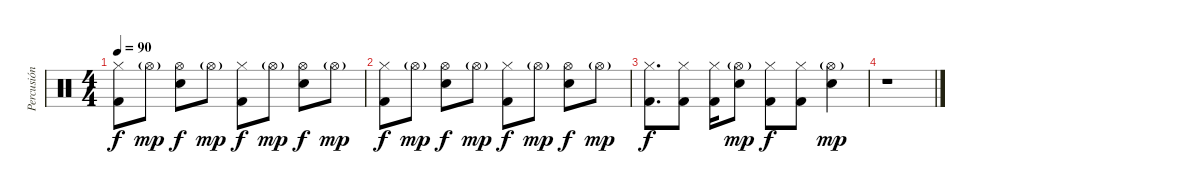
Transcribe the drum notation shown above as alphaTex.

\track ("Percusión" "Percusión") {instrument percussion}
\staff {score}
\articulation defaults
\ts (4 4)
\tempo 90
\clef neutral
\ks c
("Hi-Hat (closed)" "Kick (hit) 2").8{dy f} "Hi-Hat (open)"{g}.8{dy mp} ("Hi-Hat (open)" "Snare (hit) 2").8{dy f} "Hi-Hat (open)"{g}.8{dy mp} ("Hi-Hat (closed)" "Kick (hit) 2").8{dy f} "Hi-Hat (open)"{g}.8{dy mp} ("Hi-Hat (open)" "Snare (hit) 2").8{dy f} "Hi-Hat (open)"{g}.8{dy mp} |
("Hi-Hat (closed)" "Kick (hit) 2").8{dy f} "Hi-Hat (open)"{g}.8{dy mp} ("Hi-Hat (open)" "Snare (hit) 2").8{dy f} "Hi-Hat (open)"{g}.8{dy mp} ("Hi-Hat (closed)" "Kick (hit) 2").8{dy f} "Hi-Hat (open)"{g}.8{dy mp} ("Hi-Hat (open)" "Snare (hit) 2").8{dy f} "Hi-Hat (open)"{g}.8{dy mp} |
("Hi-Hat (closed)" "Kick (hit) 2").8{d dy f} ("Hi-Hat (closed)" "Kick (hit) 2").8 ("Hi-Hat (closed)" "Kick (hit) 2").16 ("Hi-Hat (open)"{g} "Snare (hit) 2").8{dy mp} ("Hi-Hat (closed)" "Kick (hit) 2").8{dy f} ("Hi-Hat (closed)" "Kick (hit) 2").8 ("Hi-Hat (open)"{g} "Snare (hit) 2").4{dy mp} |
r.1
